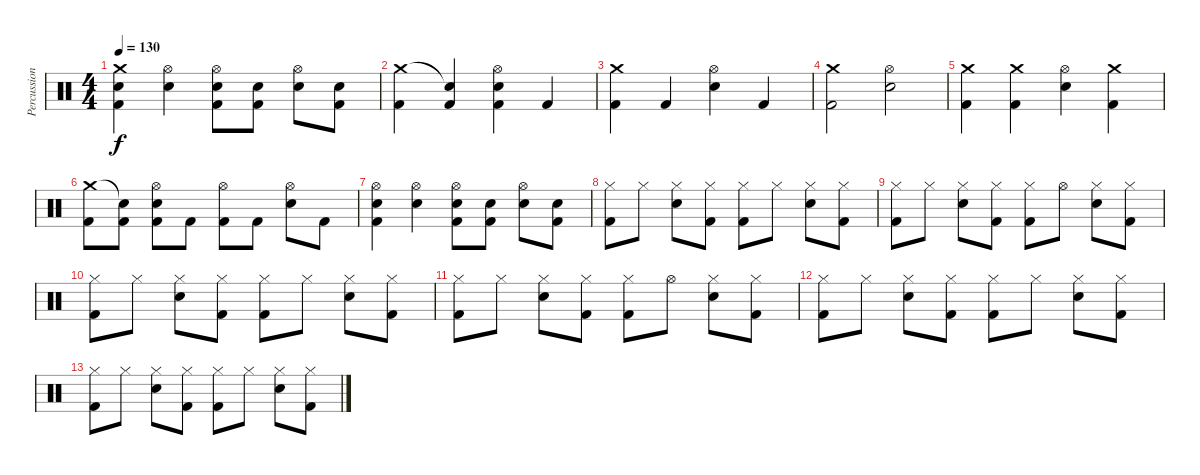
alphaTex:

\track ("Percussion" "Percussion") {instrument percussion}
\staff {score}
\articulation defaults
\ts (4 4)
\tempo 130
\clef neutral
\ks c
("Crash medium (hit)" "Electric Snare (hit)" "Kick (hit) 2").4{dy f} ("Hi-Hat (open)" "Electric Snare (hit)").4 ("Hi-Hat (open)" "Electric Snare (hit)" "Kick (hit) 2").8 ("Electric Snare (hit)" "Kick (hit) 2").8 ("Hi-Hat (open)" "Electric Snare (hit)").8 ("Electric Snare (hit)" "Kick (hit) 2").8 |
("Crash medium (hit)" "Kick (hit) 2").4 ("Snare (hit)"{t} "Kick (hit) 2").4 ("Hi-Hat (open)" "Electric Snare (hit)" "Kick (hit) 2").4 "Kick (hit) 2".4 |
("Crash medium (hit)" "Kick (hit) 2").4 "Kick (hit) 2".4 ("Hi-Hat (open)" "Electric Snare (hit)").4 "Kick (hit) 2".4 |
("Crash medium (hit)" "Kick (hit) 2").2 ("Hi-Hat (open)" "Electric Snare (hit)").2 |
("Crash medium (hit)" "Kick (hit) 2").4 ("Crash medium (hit)" "Kick (hit) 2").4 ("Hi-Hat (open)" "Electric Snare (hit)").4 ("Crash medium (hit)" "Kick (hit) 2").4 |
("Crash medium (hit)" "Kick (hit) 2").8 ("Snare (hit)"{t} "Kick (hit) 2").8 ("Hi-Hat (open)" "Electric Snare (hit)" "Kick (hit) 2").8 "Kick (hit) 2".8 ("Hi-Hat (open)" "Kick (hit) 2").8 "Kick (hit) 2".8 ("Hi-Hat (open)" "Electric Snare (hit)").8 "Kick (hit) 2".8 |
("Hi-Hat (open)" "Electric Snare (hit)" "Kick (hit) 2").4 ("Hi-Hat (open)" "Electric Snare (hit)").4 ("Hi-Hat (open)" "Electric Snare (hit)" "Kick (hit) 2").8 ("Electric Snare (hit)" "Kick (hit) 2").8 ("Hi-Hat (open)" "Electric Snare (hit)").8 ("Electric Snare (hit)" "Kick (hit) 2").8 |
("Hi-Hat (closed)" "Kick (hit) 2").8 "Hi-Hat (closed)".8 ("Hi-Hat (closed)" "Electric Snare (hit)").8 ("Hi-Hat (closed)" "Kick (hit) 2").8 ("Hi-Hat (closed)" "Kick (hit) 2").8 "Hi-Hat (closed)".8 ("Hi-Hat (closed)" "Electric Snare (hit)").8 ("Hi-Hat (closed)" "Kick (hit) 2").8 |
("Hi-Hat (closed)" "Kick (hit) 2").8 "Hi-Hat (closed)".8 ("Hi-Hat (closed)" "Electric Snare (hit)").8 ("Hi-Hat (closed)" "Kick (hit) 2").8 ("Hi-Hat (closed)" "Kick (hit) 2").8 "Hi-Hat (open)".8 ("Hi-Hat (closed)" "Electric Snare (hit)").8 ("Hi-Hat (closed)" "Kick (hit) 2").8 |
("Hi-Hat (closed)" "Kick (hit) 2").8 "Hi-Hat (closed)".8 ("Hi-Hat (closed)" "Electric Snare (hit)").8 ("Hi-Hat (closed)" "Kick (hit) 2").8 ("Hi-Hat (closed)" "Kick (hit) 2").8 "Hi-Hat (closed)".8 ("Hi-Hat (closed)" "Electric Snare (hit)").8 ("Hi-Hat (closed)" "Kick (hit) 2").8 |
("Hi-Hat (closed)" "Kick (hit) 2").8 "Hi-Hat (closed)".8 ("Hi-Hat (closed)" "Electric Snare (hit)").8 ("Hi-Hat (closed)" "Kick (hit) 2").8 ("Hi-Hat (closed)" "Kick (hit) 2").8 "Hi-Hat (open)".8 ("Hi-Hat (closed)" "Electric Snare (hit)").8 ("Hi-Hat (closed)" "Kick (hit) 2").8 |
("Hi-Hat (closed)" "Kick (hit) 2").8 "Hi-Hat (closed)".8 ("Hi-Hat (closed)" "Electric Snare (hit)").8 ("Hi-Hat (closed)" "Kick (hit) 2").8 ("Hi-Hat (closed)" "Kick (hit) 2").8 "Hi-Hat (closed)".8 ("Hi-Hat (closed)" "Electric Snare (hit)").8 ("Hi-Hat (closed)" "Kick (hit) 2").8 |
("Hi-Hat (closed)" "Kick (hit) 2").8 "Hi-Hat (closed)".8 ("Hi-Hat (closed)" "Electric Snare (hit)").8 ("Hi-Hat (closed)" "Kick (hit) 2").8 ("Hi-Hat (closed)" "Kick (hit) 2").8 "Hi-Hat (closed)".8 ("Hi-Hat (closed)" "Electric Snare (hit)").8 ("Hi-Hat (closed)" "Kick (hit) 2").8
